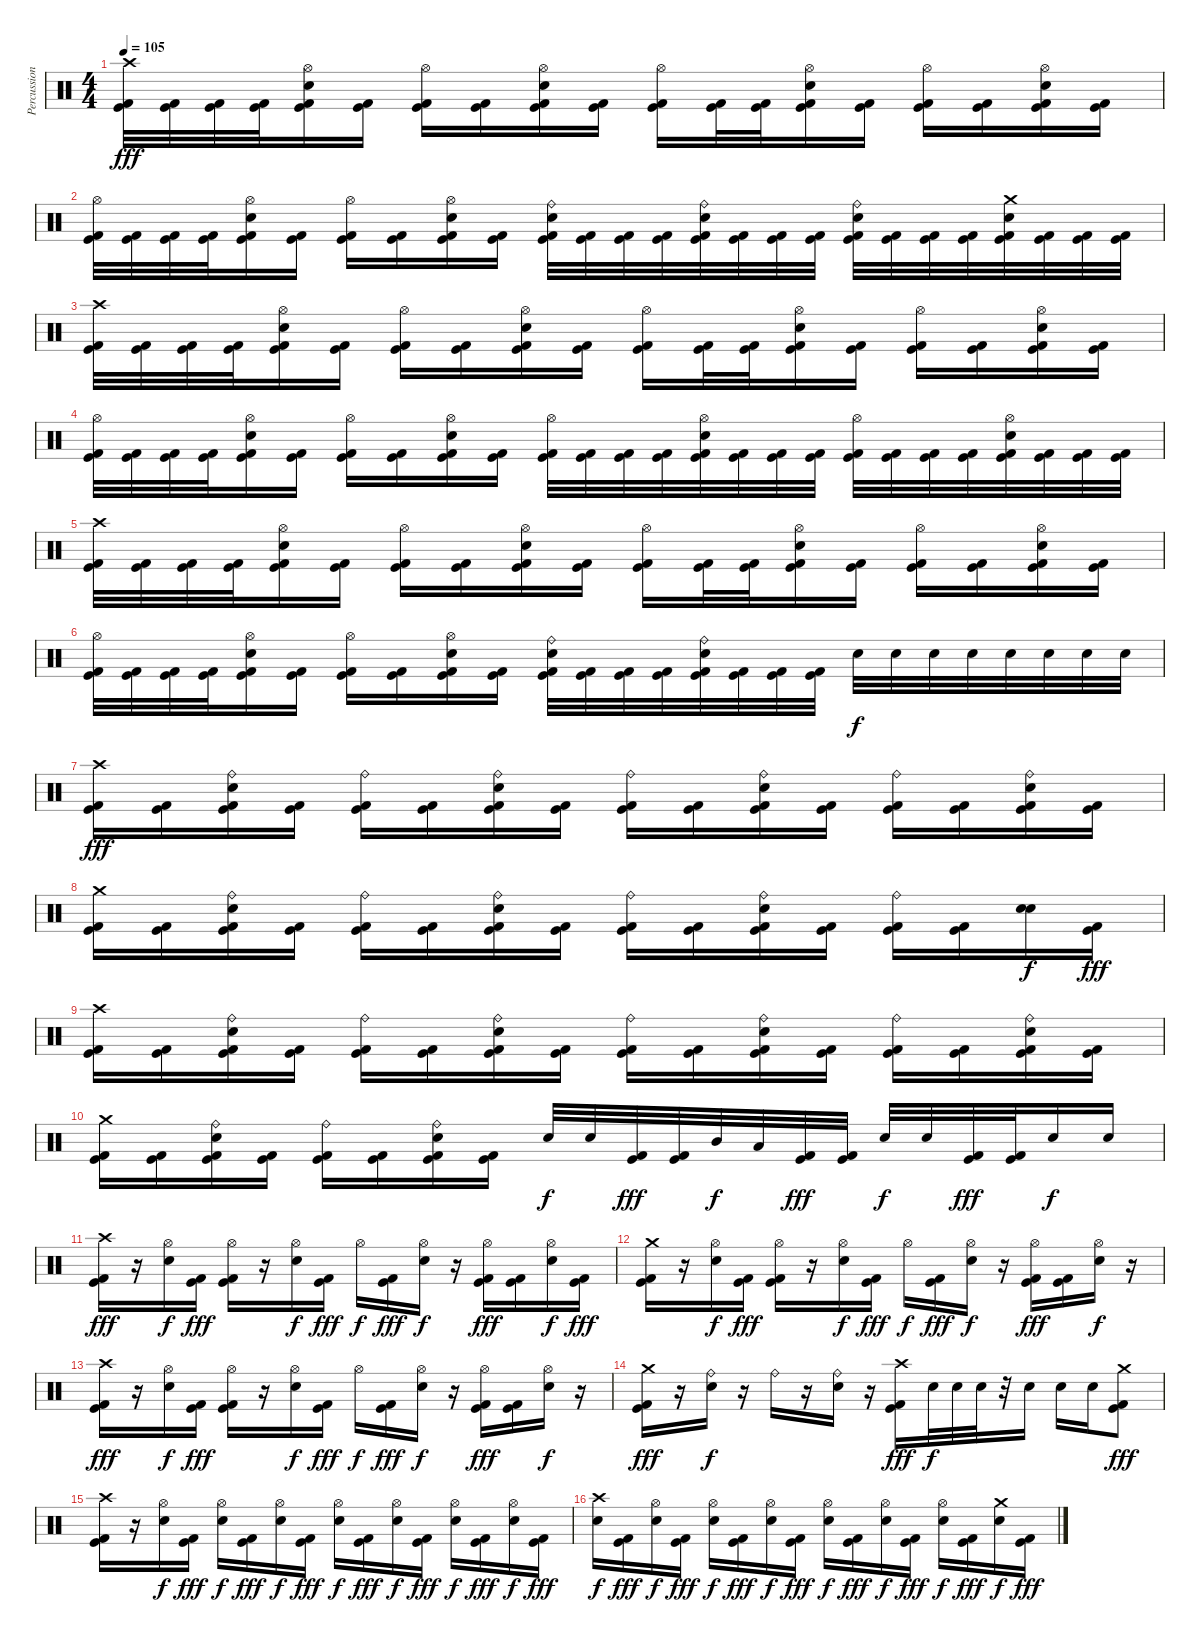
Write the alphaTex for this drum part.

\track ("Percussion" "Percussion") {instrument percussion}
\staff {score}
\articulation defaults
\ts (4 4)
\tempo 105
\clef neutral
\ks c
("Crash high (hit)" "Kick (hit)" "Kick (hit) 2").32{dy fff} ("Kick (hit)" "Kick (hit) 2").32 ("Kick (hit)" "Kick (hit) 2").32 ("Kick (hit)" "Kick (hit) 2").32 ("Hi-Hat (open)" "Electric Snare (hit)" "Kick (hit)" "Kick (hit) 2").16 ("Kick (hit)" "Kick (hit) 2").16 ("Hi-Hat (open)" "Kick (hit)" "Kick (hit) 2").16 ("Kick (hit)" "Kick (hit) 2").16 ("Hi-Hat (open)" "Electric Snare (hit)" "Kick (hit)" "Kick (hit) 2").16 ("Kick (hit)" "Kick (hit) 2").16 ("Hi-Hat (open)" "Kick (hit)" "Kick (hit) 2").16 ("Kick (hit)" "Kick (hit) 2").32 ("Kick (hit)" "Kick (hit) 2").32 ("Hi-Hat (open)" "Electric Snare (hit)" "Kick (hit)" "Kick (hit) 2").16 ("Kick (hit)" "Kick (hit) 2").16 ("Hi-Hat (open)" "Kick (hit)" "Kick (hit) 2").16 ("Kick (hit)" "Kick (hit) 2").16 ("Hi-Hat (open)" "Electric Snare (hit)" "Kick (hit)" "Kick (hit) 2").16 ("Kick (hit)" "Kick (hit) 2").16 |
("Hi-Hat (open)" "Kick (hit)" "Kick (hit) 2").32 ("Kick (hit)" "Kick (hit) 2").32 ("Kick (hit)" "Kick (hit) 2").32 ("Kick (hit)" "Kick (hit) 2").32 ("Hi-Hat (open)" "Electric Snare (hit)" "Kick (hit)" "Kick (hit) 2").16 ("Kick (hit)" "Kick (hit) 2").16 ("Hi-Hat (open)" "Kick (hit)" "Kick (hit) 2").16 ("Kick (hit)" "Kick (hit) 2").16 ("Hi-Hat (open)" "Electric Snare (hit)" "Kick (hit)" "Kick (hit) 2").16 ("Kick (hit)" "Kick (hit) 2").16 ("Ride (bell)" "Electric Snare (hit)" "Kick (hit)" "Kick (hit) 2").32 ("Kick (hit)" "Kick (hit) 2").32 ("Kick (hit)" "Kick (hit) 2").32 ("Kick (hit)" "Kick (hit) 2").32 ("Ride (bell)" "Electric Snare (hit)" "Kick (hit)" "Kick (hit) 2").32 ("Kick (hit)" "Kick (hit) 2").32 ("Kick (hit)" "Kick (hit) 2").32 ("Kick (hit)" "Kick (hit) 2").32 ("Ride (bell)" "Electric Snare (hit)" "Kick (hit)" "Kick (hit) 2").32 ("Kick (hit)" "Kick (hit) 2").32 ("Kick (hit)" "Kick (hit) 2").32 ("Kick (hit)" "Kick (hit) 2").32 ("Crash medium (hit)" "Electric Snare (hit)" "Kick (hit)" "Kick (hit) 2").32 ("Kick (hit)" "Kick (hit) 2").32 ("Kick (hit)" "Kick (hit) 2").32 ("Kick (hit)" "Kick (hit) 2").32 |
("Crash high (hit)" "Kick (hit)" "Kick (hit) 2").32 ("Kick (hit)" "Kick (hit) 2").32 ("Kick (hit)" "Kick (hit) 2").32 ("Kick (hit)" "Kick (hit) 2").32 ("Hi-Hat (open)" "Electric Snare (hit)" "Kick (hit)" "Kick (hit) 2").16 ("Kick (hit)" "Kick (hit) 2").16 ("Hi-Hat (open)" "Kick (hit)" "Kick (hit) 2").16 ("Kick (hit)" "Kick (hit) 2").16 ("Hi-Hat (open)" "Electric Snare (hit)" "Kick (hit)" "Kick (hit) 2").16 ("Kick (hit)" "Kick (hit) 2").16 ("Hi-Hat (open)" "Kick (hit)" "Kick (hit) 2").16 ("Kick (hit)" "Kick (hit) 2").32 ("Kick (hit)" "Kick (hit) 2").32 ("Hi-Hat (open)" "Electric Snare (hit)" "Kick (hit)" "Kick (hit) 2").16 ("Kick (hit)" "Kick (hit) 2").16 ("Hi-Hat (open)" "Kick (hit)" "Kick (hit) 2").16 ("Kick (hit)" "Kick (hit) 2").16 ("Hi-Hat (open)" "Electric Snare (hit)" "Kick (hit)" "Kick (hit) 2").16 ("Kick (hit)" "Kick (hit) 2").16 |
("Hi-Hat (open)" "Kick (hit)" "Kick (hit) 2").32 ("Kick (hit)" "Kick (hit) 2").32 ("Kick (hit)" "Kick (hit) 2").32 ("Kick (hit)" "Kick (hit) 2").32 ("Hi-Hat (open)" "Electric Snare (hit)" "Kick (hit)" "Kick (hit) 2").16 ("Kick (hit)" "Kick (hit) 2").16 ("Hi-Hat (open)" "Kick (hit)" "Kick (hit) 2").16 ("Kick (hit)" "Kick (hit) 2").16 ("Hi-Hat (open)" "Electric Snare (hit)" "Kick (hit)" "Kick (hit) 2").16 ("Kick (hit)" "Kick (hit) 2").16 ("Hi-Hat (open)" "Kick (hit)" "Kick (hit) 2").32 ("Kick (hit)" "Kick (hit) 2").32 ("Kick (hit)" "Kick (hit) 2").32 ("Kick (hit)" "Kick (hit) 2").32 ("Hi-Hat (open)" "Electric Snare (hit)" "Kick (hit)" "Kick (hit) 2").32 ("Kick (hit)" "Kick (hit) 2").32 ("Kick (hit)" "Kick (hit) 2").32 ("Kick (hit)" "Kick (hit) 2").32 ("Hi-Hat (open)" "Kick (hit)" "Kick (hit) 2").32 ("Kick (hit)" "Kick (hit) 2").32 ("Kick (hit)" "Kick (hit) 2").32 ("Kick (hit)" "Kick (hit) 2").32 ("Hi-Hat (open)" "Electric Snare (hit)" "Kick (hit)" "Kick (hit) 2").32 ("Kick (hit)" "Kick (hit) 2").32 ("Kick (hit)" "Kick (hit) 2").32 ("Kick (hit)" "Kick (hit) 2").32 |
("Crash high (hit)" "Kick (hit)" "Kick (hit) 2").32 ("Kick (hit)" "Kick (hit) 2").32 ("Kick (hit)" "Kick (hit) 2").32 ("Kick (hit)" "Kick (hit) 2").32 ("Hi-Hat (open)" "Electric Snare (hit)" "Kick (hit)" "Kick (hit) 2").16 ("Kick (hit)" "Kick (hit) 2").16 ("Hi-Hat (open)" "Kick (hit)" "Kick (hit) 2").16 ("Kick (hit)" "Kick (hit) 2").16 ("Hi-Hat (open)" "Electric Snare (hit)" "Kick (hit)" "Kick (hit) 2").16 ("Kick (hit)" "Kick (hit) 2").16 ("Hi-Hat (open)" "Kick (hit)" "Kick (hit) 2").16 ("Kick (hit)" "Kick (hit) 2").32 ("Kick (hit)" "Kick (hit) 2").32 ("Hi-Hat (open)" "Electric Snare (hit)" "Kick (hit)" "Kick (hit) 2").16 ("Kick (hit)" "Kick (hit) 2").16 ("Hi-Hat (open)" "Kick (hit)" "Kick (hit) 2").16 ("Kick (hit)" "Kick (hit) 2").16 ("Hi-Hat (open)" "Electric Snare (hit)" "Kick (hit)" "Kick (hit) 2").16 ("Kick (hit)" "Kick (hit) 2").16 |
("Hi-Hat (open)" "Kick (hit)" "Kick (hit) 2").32 ("Kick (hit)" "Kick (hit) 2").32 ("Kick (hit)" "Kick (hit) 2").32 ("Kick (hit)" "Kick (hit) 2").32 ("Hi-Hat (open)" "Electric Snare (hit)" "Kick (hit)" "Kick (hit) 2").16 ("Kick (hit)" "Kick (hit) 2").16 ("Hi-Hat (open)" "Kick (hit)" "Kick (hit) 2").16 ("Kick (hit)" "Kick (hit) 2").16 ("Hi-Hat (open)" "Electric Snare (hit)" "Kick (hit)" "Kick (hit) 2").16 ("Kick (hit)" "Kick (hit) 2").16 ("Ride (bell)" "Electric Snare (hit)" "Kick (hit)" "Kick (hit) 2").32 ("Kick (hit)" "Kick (hit) 2").32 ("Kick (hit)" "Kick (hit) 2").32 ("Kick (hit)" "Kick (hit) 2").32 ("Ride (bell)" "Electric Snare (hit)" "Kick (hit)" "Kick (hit) 2").32 ("Kick (hit)" "Kick (hit) 2").32 ("Kick (hit)" "Kick (hit) 2").32 ("Kick (hit)" "Kick (hit) 2").32 "Electric Snare (hit)".32{dy f} "Electric Snare (hit)".32 "Electric Snare (hit)".32 "Electric Snare (hit)".32 "Electric Snare (hit)".32 "Electric Snare (hit)".32 "Electric Snare (hit)".32 "Electric Snare (hit)".32 |
("Crash high (hit)" "Kick (hit)" "Kick (hit) 2").16{dy fff} ("Kick (hit)" "Kick (hit) 2").16 ("Ride (bell)" "Electric Snare (hit)" "Kick (hit)" "Kick (hit) 2").16 ("Kick (hit)" "Kick (hit) 2").16 ("Ride (bell)" "Kick (hit)" "Kick (hit) 2").16 ("Kick (hit)" "Kick (hit) 2").16 ("Ride (bell)" "Electric Snare (hit)" "Kick (hit)" "Kick (hit) 2").16 ("Kick (hit)" "Kick (hit) 2").16 ("Ride (bell)" "Kick (hit)" "Kick (hit) 2").16 ("Kick (hit)" "Kick (hit) 2").16 ("Ride (bell)" "Electric Snare (hit)" "Kick (hit)" "Kick (hit) 2").16 ("Kick (hit)" "Kick (hit) 2").16 ("Ride (bell)" "Kick (hit)" "Kick (hit) 2").16 ("Kick (hit)" "Kick (hit) 2").16 ("Ride (bell)" "Electric Snare (hit)" "Kick (hit)" "Kick (hit) 2").16 ("Kick (hit)" "Kick (hit) 2").16 |
("Crash medium (hit)" "Kick (hit)" "Kick (hit) 2").16 ("Kick (hit)" "Kick (hit) 2").16 ("Ride (bell)" "Electric Snare (hit)" "Kick (hit)" "Kick (hit) 2").16 ("Kick (hit)" "Kick (hit) 2").16 ("Ride (bell)" "Kick (hit)" "Kick (hit) 2").16 ("Kick (hit)" "Kick (hit) 2").16 ("Ride (bell)" "Electric Snare (hit)" "Kick (hit)" "Kick (hit) 2").16 ("Kick (hit)" "Kick (hit) 2").16 ("Ride (bell)" "Kick (hit)" "Kick (hit) 2").16 ("Kick (hit)" "Kick (hit) 2").16 ("Ride (bell)" "Electric Snare (hit)" "Kick (hit)" "Kick (hit) 2").16 ("Kick (hit)" "Kick (hit) 2").16 ("Ride (bell)" "Kick (hit)" "Kick (hit) 2").16 ("Kick (hit)" "Kick (hit) 2").16 ("Electric Snare (hit)" "Electric Snare (hit)").16{bu 60 dy f} ("Kick (hit)" "Kick (hit) 2").16{dy fff} |
("Crash high (hit)" "Kick (hit)" "Kick (hit) 2").16 ("Kick (hit)" "Kick (hit) 2").16 ("Ride (bell)" "Electric Snare (hit)" "Kick (hit)" "Kick (hit) 2").16 ("Kick (hit)" "Kick (hit) 2").16 ("Ride (bell)" "Kick (hit)" "Kick (hit) 2").16 ("Kick (hit)" "Kick (hit) 2").16 ("Ride (bell)" "Electric Snare (hit)" "Kick (hit)" "Kick (hit) 2").16 ("Kick (hit)" "Kick (hit) 2").16 ("Ride (bell)" "Kick (hit)" "Kick (hit) 2").16 ("Kick (hit)" "Kick (hit) 2").16 ("Ride (bell)" "Electric Snare (hit)" "Kick (hit)" "Kick (hit) 2").16 ("Kick (hit)" "Kick (hit) 2").16 ("Ride (bell)" "Kick (hit)" "Kick (hit) 2").16 ("Kick (hit)" "Kick (hit) 2").16 ("Ride (bell)" "Electric Snare (hit)" "Kick (hit)" "Kick (hit) 2").16 ("Kick (hit)" "Kick (hit) 2").16 |
("Crash medium (hit)" "Kick (hit)" "Kick (hit) 2").16 ("Kick (hit)" "Kick (hit) 2").16 ("Ride (bell)" "Electric Snare (hit)" "Kick (hit)" "Kick (hit) 2").16 ("Kick (hit)" "Kick (hit) 2").16 ("Ride (bell)" "Kick (hit)" "Kick (hit) 2").16 ("Kick (hit)" "Kick (hit) 2").16 ("Ride (bell)" "Electric Snare (hit)" "Kick (hit)" "Kick (hit) 2").16 ("Kick (hit)" "Kick (hit) 2").16 "Electric Snare (hit)".32{dy f} "Electric Snare (hit)".32 ("Kick (hit)" "Kick (hit) 2").32{dy fff} ("Kick (hit)" "Kick (hit) 2").32 "Mid Tom (hit)".32{dy f} "Low Tom (hit)".32 ("Kick (hit)" "Kick (hit) 2").32{dy fff} ("Kick (hit)" "Kick (hit) 2").32 "Electric Snare (hit)".32{dy f} "Electric Snare (hit)".32 ("Kick (hit)" "Kick (hit) 2").32{dy fff} ("Kick (hit)" "Kick (hit) 2").32 "Electric Snare (hit)".16{dy f} "Electric Snare (hit)".16 |
("Crash high (hit)" "Kick (hit)" "Kick (hit) 2").16{dy fff} r.16 ("Hi-Hat (open)" "Electric Snare (hit)").16{dy f} ("Kick (hit)" "Kick (hit) 2").16{dy fff} ("Hi-Hat (open)" "Kick (hit)" "Kick (hit) 2").16 r.16 ("Hi-Hat (open)" "Electric Snare (hit)").16{dy f} ("Kick (hit)" "Kick (hit) 2").16{dy fff} "Hi-Hat (open)".16{dy f} ("Kick (hit)" "Kick (hit) 2").16{dy fff} ("Hi-Hat (open)" "Electric Snare (hit)").16{dy f} r.16 ("Hi-Hat (open)" "Kick (hit)" "Kick (hit) 2").16{dy fff} ("Kick (hit)" "Kick (hit) 2").16 ("Hi-Hat (open)" "Electric Snare (hit)").16{dy f} ("Kick (hit)" "Kick (hit) 2").16{dy fff} |
("Crash medium (hit)" "Kick (hit)" "Kick (hit) 2").16 r.16 ("Hi-Hat (open)" "Electric Snare (hit)").16{dy f} ("Kick (hit)" "Kick (hit) 2").16{dy fff} ("Hi-Hat (open)" "Kick (hit)" "Kick (hit) 2").16 r.16 ("Hi-Hat (open)" "Electric Snare (hit)").16{dy f} ("Kick (hit)" "Kick (hit) 2").16{dy fff} "Hi-Hat (open)".16{dy f} ("Kick (hit)" "Kick (hit) 2").16{dy fff} ("Hi-Hat (open)" "Electric Snare (hit)").16{dy f} r.16 ("Hi-Hat (open)" "Kick (hit)" "Kick (hit) 2").16{dy fff} ("Kick (hit)" "Kick (hit) 2").16 ("Hi-Hat (open)" "Electric Snare (hit)").16{dy f} r.16 |
("Crash high (hit)" "Kick (hit)" "Kick (hit) 2").16{dy fff} r.16 ("Hi-Hat (open)" "Electric Snare (hit)").16{dy f} ("Kick (hit)" "Kick (hit) 2").16{dy fff} ("Hi-Hat (open)" "Kick (hit)" "Kick (hit) 2").16 r.16 ("Hi-Hat (open)" "Electric Snare (hit)").16{dy f} ("Kick (hit)" "Kick (hit) 2").16{dy fff} "Hi-Hat (open)".16{dy f} ("Kick (hit)" "Kick (hit) 2").16{dy fff} ("Hi-Hat (open)" "Electric Snare (hit)").16{dy f} r.16 ("Hi-Hat (open)" "Kick (hit)" "Kick (hit) 2").16{dy fff} ("Kick (hit)" "Kick (hit) 2").16 ("Hi-Hat (open)" "Electric Snare (hit)").16{dy f} r.16 |
("Crash medium (hit)" "Kick (hit)" "Kick (hit) 2").16{dy fff} r.16 ("Ride (bell)" "Electric Snare (hit)").16{dy f} r.16 "Ride (bell)".16 r.16 ("Ride (bell)" "Electric Snare (hit)").16 r.16 ("Crash high (hit)" "Kick (hit)" "Kick (hit) 2").16{dy fff} "Electric Snare (hit)".32{dy f} "Electric Snare (hit)".32 "Electric Snare (hit)".32 r.32 "Electric Snare (hit)".16 "Electric Snare (hit)".16 "Electric Snare (hit)".16 ("Crash medium (hit)" "Kick (hit)" "Kick (hit) 2").8{dy fff} |
("Crash high (hit)" "Kick (hit)" "Kick (hit) 2").16 r.16 ("Hi-Hat (open)" "Electric Snare (hit)").16{dy f} ("Kick (hit)" "Kick (hit) 2").16{dy fff} ("Hi-Hat (open)" "Electric Snare (hit)").16{dy f} ("Kick (hit)" "Kick (hit) 2").16{dy fff} ("Hi-Hat (open)" "Electric Snare (hit)").16{dy f} ("Kick (hit)" "Kick (hit) 2").16{dy fff} ("Hi-Hat (open)" "Electric Snare (hit)").16{dy f} ("Kick (hit)" "Kick (hit) 2").16{dy fff} ("Hi-Hat (open)" "Electric Snare (hit)").16{dy f} ("Kick (hit)" "Kick (hit) 2").16{dy fff} ("Hi-Hat (open)" "Electric Snare (hit)").16{dy f} ("Kick (hit)" "Kick (hit) 2").16{dy fff} ("Hi-Hat (open)" "Electric Snare (hit)").16{dy f} ("Kick (hit)" "Kick (hit) 2").16{dy fff} |
("Crash high (hit)" "Electric Snare (hit)").16{dy f} ("Kick (hit)" "Kick (hit) 2").16{dy fff} ("Hi-Hat (open)" "Electric Snare (hit)").16{dy f} ("Kick (hit)" "Kick (hit) 2").16{dy fff} ("Hi-Hat (open)" "Electric Snare (hit)").16{dy f} ("Kick (hit)" "Kick (hit) 2").16{dy fff} ("Hi-Hat (open)" "Electric Snare (hit)").16{dy f} ("Kick (hit)" "Kick (hit) 2").16{dy fff} ("Hi-Hat (open)" "Electric Snare (hit)").16{dy f} ("Kick (hit)" "Kick (hit) 2").16{dy fff} ("Hi-Hat (open)" "Electric Snare (hit)").16{dy f} ("Kick (hit)" "Kick (hit) 2").16{dy fff} ("Hi-Hat (open)" "Electric Snare (hit)").16{dy f} ("Kick (hit)" "Kick (hit) 2").16{dy fff} ("Crash medium (hit)" "Electric Snare (hit)").16{dy f} ("Kick (hit)" "Kick (hit) 2").16{dy fff}
